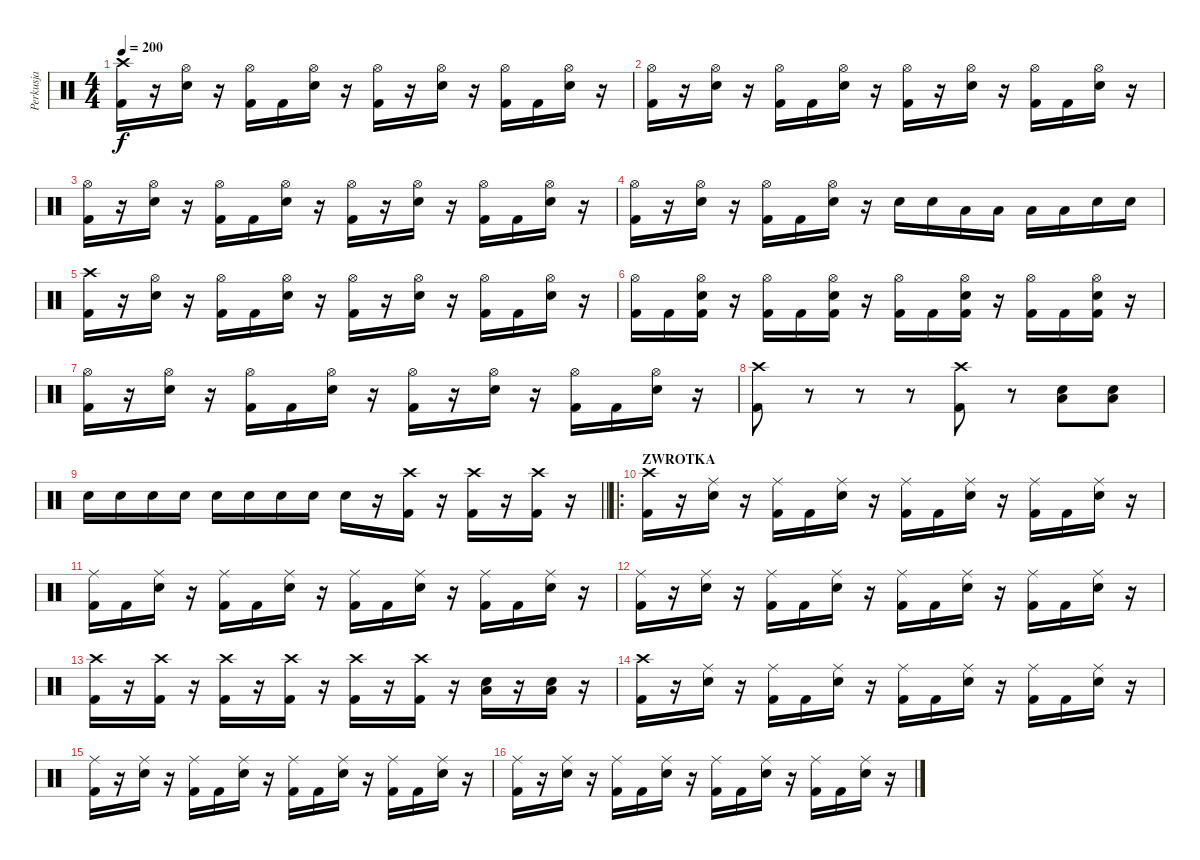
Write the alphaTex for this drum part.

\track ("Perkusja" "Perkusja") {instrument percussion}
\staff {score}
\articulation defaults
\ts (4 4)
\tempo 200
\clef neutral
\ks c
("Crash high (hit)" "Kick (hit) 2").16{dy f} r.16 ("Hi-Hat (open)" "Snare (hit) 2").16 r.16 ("Hi-Hat (open)" "Kick (hit) 2").16 "Kick (hit) 2".16 ("Hi-Hat (open)" "Snare (hit) 2").16 r.16 ("Hi-Hat (open)" "Kick (hit) 2").16 r.16 ("Hi-Hat (open)" "Snare (hit) 2").16 r.16 ("Hi-Hat (open)" "Kick (hit) 2").16 "Kick (hit) 2".16 ("Hi-Hat (open)" "Snare (hit) 2").16 r.16 |
("Hi-Hat (open)" "Kick (hit) 2").16 r.16 ("Hi-Hat (open)" "Snare (hit) 2").16 r.16 ("Hi-Hat (open)" "Kick (hit) 2").16 "Kick (hit) 2".16 ("Hi-Hat (open)" "Snare (hit) 2").16 r.16 ("Hi-Hat (open)" "Kick (hit) 2").16 r.16 ("Hi-Hat (open)" "Snare (hit) 2").16 r.16 ("Hi-Hat (open)" "Kick (hit) 2").16 "Kick (hit) 2".16 ("Hi-Hat (open)" "Snare (hit) 2").16 r.16 |
("Hi-Hat (open)" "Kick (hit) 2").16 r.16 ("Hi-Hat (open)" "Snare (hit) 2").16 r.16 ("Hi-Hat (open)" "Kick (hit) 2").16 "Kick (hit) 2".16 ("Hi-Hat (open)" "Snare (hit) 2").16 r.16 ("Hi-Hat (open)" "Kick (hit) 2").16 r.16 ("Hi-Hat (open)" "Snare (hit) 2").16 r.16 ("Hi-Hat (open)" "Kick (hit) 2").16 "Kick (hit) 2".16 ("Hi-Hat (open)" "Snare (hit) 2").16 r.16 |
("Hi-Hat (open)" "Kick (hit) 2").16 r.16 ("Hi-Hat (open)" "Snare (hit) 2").16 r.16 ("Hi-Hat (open)" "Kick (hit) 2").16 "Kick (hit) 2".16 ("Hi-Hat (open)" "Snare (hit) 2").16 r.16 "Snare (hit) 2".16 "Snare (hit) 2".16 "Low Tom (hit)".16 "Low Tom (hit)".16 "Low Tom (hit)".16 "Low Tom (hit)".16 "Snare (hit) 2".16 "Snare (hit) 2".16 |
("Crash high (hit)" "Kick (hit) 2").16 r.16 ("Hi-Hat (open)" "Snare (hit) 2").16 r.16 ("Hi-Hat (open)" "Kick (hit) 2").16 "Kick (hit) 2".16 ("Hi-Hat (open)" "Snare (hit) 2").16 r.16 ("Hi-Hat (open)" "Kick (hit) 2").16 r.16 ("Hi-Hat (open)" "Snare (hit) 2").16 r.16 ("Hi-Hat (open)" "Kick (hit) 2").16 "Kick (hit) 2".16 ("Hi-Hat (open)" "Snare (hit) 2").16 r.16 |
("Hi-Hat (open)" "Kick (hit) 2").16 "Kick (hit) 2".16 ("Hi-Hat (open)" "Snare (hit) 2" "Kick (hit) 2").16 r.16 ("Hi-Hat (open)" "Kick (hit) 2").16 "Kick (hit) 2".16 ("Hi-Hat (open)" "Snare (hit) 2" "Kick (hit) 2").16 r.16 ("Hi-Hat (open)" "Kick (hit) 2").16 "Kick (hit) 2".16 ("Hi-Hat (open)" "Snare (hit) 2" "Kick (hit) 2").16 r.16 ("Hi-Hat (open)" "Kick (hit) 2").16 "Kick (hit) 2".16 ("Hi-Hat (open)" "Snare (hit) 2" "Kick (hit) 2").16 r.16 |
("Hi-Hat (open)" "Kick (hit) 2").16 r.16 ("Hi-Hat (open)" "Snare (hit) 2").16 r.16 ("Hi-Hat (open)" "Kick (hit) 2").16 "Kick (hit) 2".16 ("Hi-Hat (open)" "Snare (hit) 2").16 r.16 ("Hi-Hat (open)" "Kick (hit) 2").16 r.16 ("Hi-Hat (open)" "Snare (hit) 2").16 r.16 ("Hi-Hat (open)" "Kick (hit) 2").16 "Kick (hit) 2".16 ("Hi-Hat (open)" "Snare (hit) 2").16 r.16 |
("Crash high (hit)" "Kick (hit) 2").8 r.8 r.8 r.8 ("Crash high (hit)" "Kick (hit) 2").8 r.8 ("Snare (hit) 2" "Low Floor Tom (hit)").8 ("Snare (hit) 2" "Low Floor Tom (hit)").8 |
\barLineRight lightlight "Snare (hit) 2".16 "Snare (hit) 2".16 "Snare (hit) 2".16 "Snare (hit) 2".16 "Snare (hit) 2".16 "Snare (hit) 2".16 "Snare (hit) 2".16 "Snare (hit) 2".16 "Snare (hit) 2".16
r.16 ("Crash high (hit)" "Kick (hit) 2").16 r.16 ("Crash high (hit)" "Kick (hit) 2").16 r.16 ("Crash high (hit)" "Kick (hit) 2").16 r.16 |
\ro
\section ("" "ZWROTKA")
("Crash high (hit)" "Kick (hit) 2").16 r.16 ("Ride (middle)" "Snare (hit) 2").16 r.16 ("Ride (middle)" "Kick (hit) 2").16 "Kick (hit) 2".16 ("Ride (middle)" "Snare (hit) 2").16 r.16 ("Ride (middle)" "Kick (hit) 2").16 "Kick (hit) 2".16 ("Ride (middle)" "Snare (hit) 2").16 r.16 ("Ride (middle)" "Kick (hit) 2").16 "Kick (hit) 2".16 ("Ride (middle)" "Snare (hit) 2").16 r.16 |
("Ride (middle)" "Kick (hit) 2").16 "Kick (hit) 2".16 ("Ride (middle)" "Snare (hit) 2").16 r.16 ("Ride (middle)" "Kick (hit) 2").16 "Kick (hit) 2".16 ("Ride (middle)" "Snare (hit) 2").16 r.16 ("Ride (middle)" "Kick (hit) 2").16 "Kick (hit) 2".16 ("Ride (middle)" "Snare (hit) 2").16 r.16 ("Ride (middle)" "Kick (hit) 2").16 "Kick (hit) 2".16 ("Ride (middle)" "Snare (hit) 2").16 r.16 |
("Ride (middle)" "Kick (hit) 2").16 r.16 ("Ride (middle)" "Snare (hit) 2").16 r.16 ("Ride (middle)" "Kick (hit) 2").16 "Kick (hit) 2".16 ("Ride (middle)" "Snare (hit) 2").16 r.16 ("Ride (middle)" "Kick (hit) 2").16 "Kick (hit) 2".16 ("Ride (middle)" "Snare (hit) 2").16 r.16 ("Ride (middle)" "Kick (hit) 2").16 "Kick (hit) 2".16 ("Ride (middle)" "Snare (hit) 2").16 r.16 |
("Crash high (hit)" "Kick (hit) 2").16 r.16 ("Crash high (hit)" "Kick (hit) 2").16 r.16 ("Crash high (hit)" "Kick (hit) 2").16 r.16 ("Crash high (hit)" "Kick (hit) 2").16 r.16 ("Crash high (hit)" "Kick (hit) 2").16 r.16 ("Crash high (hit)" "Kick (hit) 2").16 r.16 ("Snare (hit) 2" "Low Floor Tom (hit)").16 r.16 ("Snare (hit) 2" "Low Floor Tom (hit)").16 r.16 |
("Crash high (hit)" "Kick (hit) 2").16 r.16 ("Ride (middle)" "Snare (hit) 2").16 r.16 ("Ride (middle)" "Kick (hit) 2").16 "Kick (hit) 2".16 ("Ride (middle)" "Snare (hit) 2").16 r.16 ("Ride (middle)" "Kick (hit) 2").16 "Kick (hit) 2".16 ("Ride (middle)" "Snare (hit) 2").16 r.16 ("Ride (middle)" "Kick (hit) 2").16 "Kick (hit) 2".16 ("Ride (middle)" "Snare (hit) 2").16 r.16 |
("Ride (middle)" "Kick (hit) 2").16 r.16 ("Ride (middle)" "Snare (hit) 2").16 r.16 ("Ride (middle)" "Kick (hit) 2").16 "Kick (hit) 2".16 ("Ride (middle)" "Snare (hit) 2").16 r.16 ("Ride (middle)" "Kick (hit) 2").16 "Kick (hit) 2".16 ("Ride (middle)" "Snare (hit) 2").16 r.16 ("Ride (middle)" "Kick (hit) 2").16 "Kick (hit) 2".16 ("Ride (middle)" "Snare (hit) 2").16 r.16 |
("Ride (middle)" "Kick (hit) 2").16 r.16 ("Ride (middle)" "Snare (hit) 2").16 r.16 ("Ride (middle)" "Kick (hit) 2").16 "Kick (hit) 2".16 ("Ride (middle)" "Snare (hit) 2").16 r.16 ("Ride (middle)" "Kick (hit) 2").16 "Kick (hit) 2".16 ("Ride (middle)" "Snare (hit) 2").16 r.16 ("Ride (middle)" "Kick (hit) 2").16 "Kick (hit) 2".16 ("Ride (middle)" "Snare (hit) 2").16 r.16
